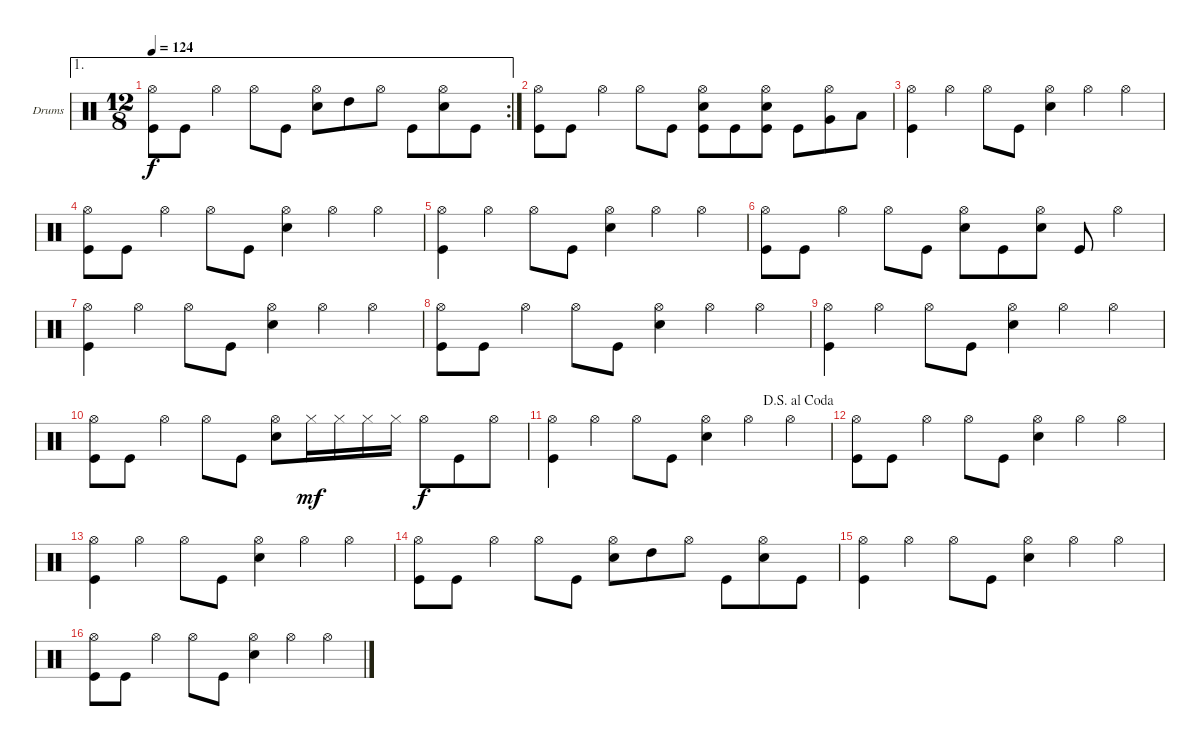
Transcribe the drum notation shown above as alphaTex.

\defaultSystemsLayout 4
\bracketExtendMode groupsimilarinstruments
\firstSystemTrackNameOrientation horizontal
\otherSystemsTrackNameOrientation horizontal
\track ("Drumkit" "Drums") {instrument percussion}
\staff {score}
\articulation defaults
\ae 1
\rc 2
\ts (12 8)
\tempo 124
\clef neutral
\ks c
("Hi-Hat (open)" "Kick (hit)").8{dy f} "Kick (hit)".8 "Hi-Hat (open)".4 "Hi-Hat (open)".8 "Kick (hit)".8 ("Hi-Hat (open)" "Snare (hit) 2").8 "High Tom (hit)".8 "Hi-Hat (open)".8 "Kick (hit)".8 ("Hi-Hat (open)" "Snare (hit) 2").8 "Kick (hit)".8 |
("Hi-Hat (open)" "Kick (hit)").8 "Kick (hit)".8 "Hi-Hat (open)".4 "Hi-Hat (open)".8 "Kick (hit)".8 ("Kick (hit)" "Snare (hit) 2" "Hi-Hat (open)").8 "Kick (hit)".8 ("Snare (hit) 2" "Kick (hit)" "Hi-Hat (open)").8 "Kick (hit)".8 ("Very Low Tom (hit)" "Hi-Hat (open)").8 "Low Tom (hit)".8 |
("Hi-Hat (open)" "Kick (hit)").4 "Hi-Hat (open)".4 "Hi-Hat (open)".8 "Kick (hit)".8 ("Hi-Hat (open)" "Snare (hit) 2").4 "Hi-Hat (open)".4 "Hi-Hat (open)".4 |
("Hi-Hat (open)" "Kick (hit)").8 "Kick (hit)".8 "Hi-Hat (open)".4 "Hi-Hat (open)".8 "Kick (hit)".8 ("Hi-Hat (open)" "Snare (hit) 2").4 "Hi-Hat (open)".4 "Hi-Hat (open)".4 |
("Hi-Hat (open)" "Kick (hit)").4 "Hi-Hat (open)".4 "Hi-Hat (open)".8 "Kick (hit)".8 ("Hi-Hat (open)" "Snare (hit) 2").4 "Hi-Hat (open)".4 "Hi-Hat (open)".4 |
("Hi-Hat (open)" "Kick (hit)").8 "Kick (hit)".8 "Hi-Hat (open)".4 "Hi-Hat (open)".8 "Kick (hit)".8 ("Hi-Hat (open)" "Snare (hit) 2").8 "Kick (hit)".8 ("Hi-Hat (open)" "Snare (hit) 2").8 "Kick (hit)".8 "Hi-Hat (open)".4 |
("Hi-Hat (open)" "Kick (hit)").4 "Hi-Hat (open)".4 "Hi-Hat (open)".8 "Kick (hit)".8 ("Hi-Hat (open)" "Snare (hit) 2").4 "Hi-Hat (open)".4 "Hi-Hat (open)".4 |
("Hi-Hat (open)" "Kick (hit)").8 "Kick (hit)".8 "Hi-Hat (open)".4 "Hi-Hat (open)".8 "Kick (hit)".8 ("Hi-Hat (open)" "Snare (hit) 2").4 "Hi-Hat (open)".4 "Hi-Hat (open)".4 |
("Hi-Hat (open)" "Kick (hit)").4 "Hi-Hat (open)".4 "Hi-Hat (open)".8 "Kick (hit)".8 ("Hi-Hat (open)" "Snare (hit) 2").4 "Hi-Hat (open)".4 "Hi-Hat (open)".4 |
("Hi-Hat (open)" "Kick (hit)").8 "Kick (hit)".8 "Hi-Hat (open)".4 "Hi-Hat (open)".8 "Kick (hit)".8 ("Hi-Hat (open)" "Snare (hit) 2").8 "Hi-Hat (closed)".16{dy mf} "Hi-Hat (closed)".16 "Hi-Hat (closed)".16 "Hi-Hat (closed)".16 "Hi-Hat (open)".8{dy f} "Kick (hit)".8 "Hi-Hat (open)".8 |
\jump dalsegnoalcoda
("Hi-Hat (open)" "Kick (hit)").4 "Hi-Hat (open)".4 "Hi-Hat (open)".8 "Kick (hit)".8 ("Hi-Hat (open)" "Snare (hit) 2").4 "Hi-Hat (open)".4 "Hi-Hat (open)".4 |
("Hi-Hat (open)" "Kick (hit)").8 "Kick (hit)".8 "Hi-Hat (open)".4 "Hi-Hat (open)".8 "Kick (hit)".8 ("Hi-Hat (open)" "Snare (hit) 2").4 "Hi-Hat (open)".4 "Hi-Hat (open)".4 |
("Hi-Hat (open)" "Kick (hit)").4 "Hi-Hat (open)".4 "Hi-Hat (open)".8 "Kick (hit)".8 ("Hi-Hat (open)" "Snare (hit) 2").4 "Hi-Hat (open)".4 "Hi-Hat (open)".4 |
("Hi-Hat (open)" "Kick (hit)").8 "Kick (hit)".8 "Hi-Hat (open)".4 "Hi-Hat (open)".8 "Kick (hit)".8 ("Hi-Hat (open)" "Snare (hit) 2").8 "High Tom (hit)".8 "Hi-Hat (open)".8 "Kick (hit)".8 ("Hi-Hat (open)" "Snare (hit) 2").8 "Kick (hit)".8 |
("Hi-Hat (open)" "Kick (hit)").4 "Hi-Hat (open)".4 "Hi-Hat (open)".8 "Kick (hit)".8 ("Hi-Hat (open)" "Snare (hit) 2").4 "Hi-Hat (open)".4 "Hi-Hat (open)".4 |
("Hi-Hat (open)" "Kick (hit)").8 "Kick (hit)".8 "Hi-Hat (open)".4 "Hi-Hat (open)".8 "Kick (hit)".8 ("Hi-Hat (open)" "Snare (hit) 2").4 "Hi-Hat (open)".4 "Hi-Hat (open)".4
